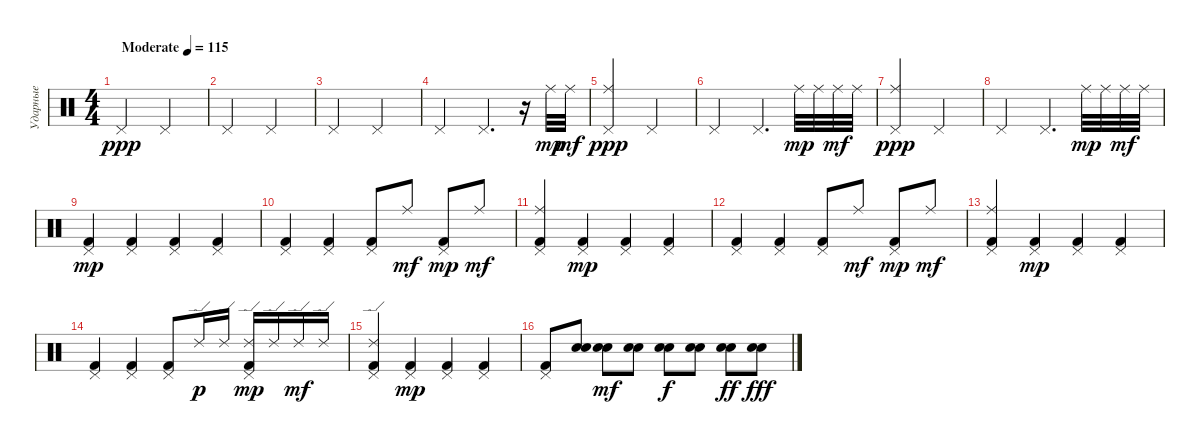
\track ("Ударные" "Ударные") {instrument percussion}
\staff {score}
\articulation defaults
\ts (4 4)
\tempo (115 "Moderate")
\clef neutral
\ks c "Pedal Hi-Hat (hit)".2{dy ppp} "Pedal Hi-Hat (hit)".2
|
"Pedal Hi-Hat (hit)".2 "Pedal Hi-Hat (hit)".2 |
"Pedal Hi-Hat (hit)".2 "Pedal Hi-Hat (hit)".2 |
"Pedal Hi-Hat (hit)".2 "Pedal Hi-Hat (hit)".4{d} r.16 "Ride (middle)".32{dy mp} "Ride (middle)".32{dy mf} |
("Pedal Hi-Hat (hit)" "Ride (middle)").2{dy ppp} "Pedal Hi-Hat (hit)".2 |
"Pedal Hi-Hat (hit)".2 "Pedal Hi-Hat (hit)".4{d} "Ride (middle)".32{dy mp} "Ride (middle)".32 "Ride (middle)".32{dy mf} "Ride (middle)".32 |
("Pedal Hi-Hat (hit)" "Ride (middle)").2{dy ppp} "Pedal Hi-Hat (hit)".2 |
"Pedal Hi-Hat (hit)".2 "Pedal Hi-Hat (hit)".4{d} "Ride (middle)".32{dy mp} "Ride (middle)".32 "Ride (middle)".32{dy mf} "Ride (middle)".32 |
("Kick (hit) 2" "Pedal Hi-Hat (hit)").4{dy mp} ("Kick (hit) 2" "Pedal Hi-Hat (hit)").4 ("Kick (hit) 2" "Pedal Hi-Hat (hit)").4 ("Kick (hit) 2" "Pedal Hi-Hat (hit)").4 |
("Kick (hit) 2" "Pedal Hi-Hat (hit)").4 ("Kick (hit) 2" "Pedal Hi-Hat (hit)").4 ("Kick (hit) 2" "Pedal Hi-Hat (hit)").8 "Ride (middle)".8{dy mf} ("Kick (hit) 2" "Pedal Hi-Hat (hit)").8{dy mp} "Ride (middle)".8{dy mf} |
("Kick (hit) 2" "Pedal Hi-Hat (hit)" "Ride (middle)").4 ("Kick (hit) 2" "Pedal Hi-Hat (hit)").4{dy mp} ("Kick (hit) 2" "Pedal Hi-Hat (hit)").4 ("Kick (hit) 2" "Pedal Hi-Hat (hit)").4 |
("Kick (hit) 2" "Pedal Hi-Hat (hit)").4 ("Kick (hit) 2" "Pedal Hi-Hat (hit)").4 ("Kick (hit) 2" "Pedal Hi-Hat (hit)").8 "Ride (middle)".8{dy mf} ("Kick (hit) 2" "Pedal Hi-Hat (hit)").8{dy mp} "Ride (middle)".8{dy mf} |
("Kick (hit) 2" "Pedal Hi-Hat (hit)" "Ride (middle)").4 ("Kick (hit) 2" "Pedal Hi-Hat (hit)").4{dy mp} ("Kick (hit) 2" "Pedal Hi-Hat (hit)").4 ("Kick (hit) 2" "Pedal Hi-Hat (hit)").4 |
("Kick (hit) 2" "Pedal Hi-Hat (hit)").4 ("Kick (hit) 2" "Pedal Hi-Hat (hit)").4 ("Kick (hit) 2" "Pedal Hi-Hat (hit)").8 "Ride (edge) 2".16{dy p} "Ride (edge) 2".16 ("Kick (hit) 2" "Pedal Hi-Hat (hit)" "Ride (edge) 2").16{dy mp} "Ride (edge) 2".16 "Ride (edge) 2".16{dy mf} "Ride (edge) 2".16 |
("Ride (edge) 2" "Kick (hit) 2" "Pedal Hi-Hat (hit)").4 ("Kick (hit) 2" "Pedal Hi-Hat (hit)").4{dy mp} ("Kick (hit) 2" "Pedal Hi-Hat (hit)").4 ("Kick (hit) 2" "Pedal Hi-Hat (hit)").4 |
("Kick (hit) 2" "Pedal Hi-Hat (hit)").8 ("Snare (hit) 2" "Snare (hit) 2").8 ("Snare (hit) 2" "Snare (hit) 2").8{dy mf} ("Snare (hit) 2" "Snare (hit) 2").8 ("Snare (hit) 2" "Snare (hit) 2").8{dy f} ("Snare (hit) 2" "Snare (hit) 2").8 ("Snare (hit) 2" "Snare (hit) 2").8{dy ff} ("Snare (hit) 2" "Snare (hit) 2").8{dy fff}
